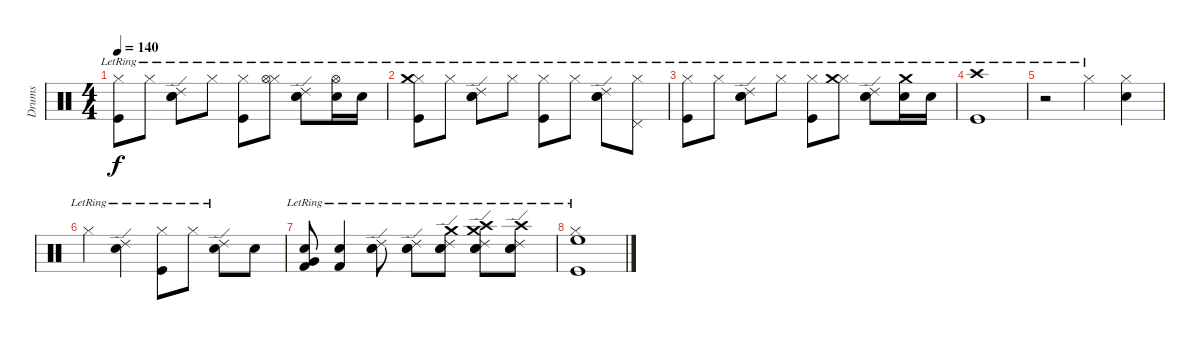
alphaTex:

\track ("Drums" "Drums") {instrument percussion}
\staff {score}
\articulation defaults
\ts (4 4)
\tempo 140
\clef neutral
\ks c
("Hi-Hat (closed)"{lr} "Kick (hit)"{lr}).8{dy f} "Hi-Hat (closed)"{lr}.8 ("Electric Snare (hit)"{lr} "Ride (edge) 2"{lr} "Snare (hit) 2"{lr}).8 "Hi-Hat (closed)"{lr}.8 ("Hi-Hat (closed)"{lr} "Kick (hit)"{lr}).8 ("Hi-Hat (closed)"{lr} "Hi-Hat (open)"{lr}).8 ("Electric Snare (hit)"{lr} "Ride (edge) 2"{lr} "Snare (hit) 2"{lr}).8 ("Hi-Hat (open)"{lr} "Snare (hit) 2"{lr}).16 "Snare (hit) 2"{lr}.16 |
("Hi-Hat (closed)"{lr} "Crash medium (hit)"{lr} "Kick (hit)"{lr}).8 "Hi-Hat (closed)"{lr}.8 ("Electric Snare (hit)"{lr} "Ride (edge) 2"{lr} "Snare (hit) 2"{lr}).8 "Hi-Hat (closed)"{lr}.8 ("Hi-Hat (closed)"{lr} "Kick (hit)"{lr}).8 "Hi-Hat (closed)"{lr}.8 ("Electric Snare (hit)"{lr} "Ride (edge) 2"{lr} "Snare (hit) 2"{lr}).8 ("Hi-Hat (closed)"{lr} "Pedal Hi-Hat (hit)"{lr}).8 |
("Hi-Hat (closed)"{lr} "Kick (hit)"{lr}).8 "Hi-Hat (closed)"{lr}.8 ("Electric Snare (hit)"{lr} "Ride (edge) 2"{lr} "Snare (hit) 2"{lr}).8 "Hi-Hat (closed)"{lr}.8 ("Hi-Hat (closed)"{lr} "Kick (hit)"{lr}).8 ("Hi-Hat (closed)"{lr} "Crash medium (hit)"{lr}).8 ("Electric Snare (hit)"{lr} "Ride (edge) 2"{lr} "Snare (hit) 2"{lr}).8 ("Crash medium (hit)" "Snare (hit) 2"{lr}).16 "Snare (hit) 2"{lr}.16 |
("Crash high (hit)" "Kick (hit)"{lr}).1 |
r.2 "Hi-Hat (closed)"{lr}.4 ("Hi-Hat (closed)" "Snare (hit) 2").4 |
"Hi-Hat (closed)"{lr}.4 ("Ride (edge) 2"{lr} "Snare (hit) 2").4 ("Hi-Hat (closed)"{lr} "Kick (hit)"{lr}).8 "Hi-Hat (closed)"{lr}.8 ("Ride (edge) 2"{lr} "Snare (hit) 2").8 "Snare (hit) 2".8 |
("Kick (hit) 2"{lr} "Very Low Tom (hit)" "Electric Snare (hit)"{lr}).8 ("Kick (hit) 2"{lr} "Electric Snare (hit)"{lr}).4 ("Snare (hit) 2"{lr} "Electric Snare (hit)"{lr} "Ride (edge) 2"{lr}).8 ("Snare (hit) 2"{lr} "Electric Snare (hit)"{lr} "Ride (edge) 2"{lr}).8 ("Snare (hit) 2"{lr} "Electric Snare (hit)"{lr} "Ride (edge) 2"{lr} "Crash medium (hit)").8 ("Snare (hit) 2"{lr} "Electric Snare (hit)"{lr} "Ride (edge) 2"{lr} "Crash high (hit)"{lr} "Crash medium (hit)").8 ("Snare (hit) 2"{lr} "Electric Snare (hit)"{lr} "Ride (edge) 2"{lr} "Crash high (hit)"{lr}).8 |
("Hi-Hat (closed)"{lr} "Kick (hit)"{lr} "High Floor Tom (hit)"{lr}).1
